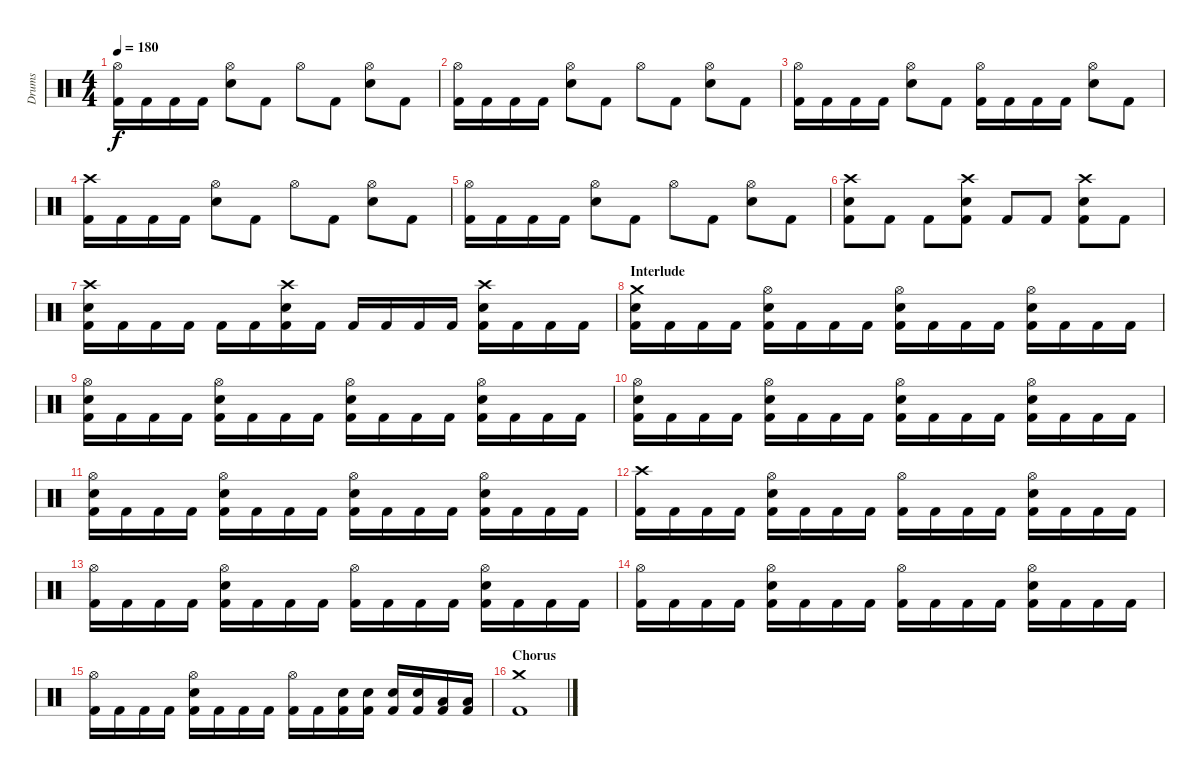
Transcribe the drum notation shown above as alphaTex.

\track ("Drums" "Drums") {instrument percussion}
\staff {score}
\articulation defaults
\ts (4 4)
\tempo 180
\clef neutral
\ks c
("Hi-Hat (open)" "Kick (hit) 2").16{dy f} "Kick (hit) 2".16 "Kick (hit) 2".16 "Kick (hit) 2".16 ("Hi-Hat (open)" "Electric Snare (hit)").8 "Kick (hit) 2".8 "Hi-Hat (open)".8 "Kick (hit) 2".8 ("Hi-Hat (open)" "Electric Snare (hit)").8 "Kick (hit) 2".8 |
("Hi-Hat (open)" "Kick (hit) 2").16 "Kick (hit) 2".16 "Kick (hit) 2".16 "Kick (hit) 2".16 ("Hi-Hat (open)" "Electric Snare (hit)").8 "Kick (hit) 2".8 "Hi-Hat (open)".8 "Kick (hit) 2".8 ("Hi-Hat (open)" "Electric Snare (hit)").8 "Kick (hit) 2".8 |
("Hi-Hat (open)" "Kick (hit) 2").16 "Kick (hit) 2".16 "Kick (hit) 2".16 "Kick (hit) 2".16 ("Hi-Hat (open)" "Electric Snare (hit)").8 "Kick (hit) 2".8 ("Hi-Hat (open)" "Kick (hit) 2").16 "Kick (hit) 2".16 "Kick (hit) 2".16 "Kick (hit) 2".16 ("Hi-Hat (open)" "Electric Snare (hit)").8 "Kick (hit) 2".8 |
("Crash high (hit)" "Kick (hit) 2").16 "Kick (hit) 2".16 "Kick (hit) 2".16 "Kick (hit) 2".16 ("Hi-Hat (open)" "Electric Snare (hit)").8 "Kick (hit) 2".8 "Hi-Hat (open)".8 "Kick (hit) 2".8 ("Hi-Hat (open)" "Electric Snare (hit)").8 "Kick (hit) 2".8 |
("Hi-Hat (open)" "Kick (hit) 2").16 "Kick (hit) 2".16 "Kick (hit) 2".16 "Kick (hit) 2".16 ("Hi-Hat (open)" "Electric Snare (hit)").8 "Kick (hit) 2".8 "Hi-Hat (open)".8 "Kick (hit) 2".8 ("Hi-Hat (open)" "Electric Snare (hit)").8 "Kick (hit) 2".8 |
("Crash high (hit)" "Electric Snare (hit)" "Kick (hit) 2").8 "Kick (hit) 2".8 "Kick (hit) 2".8 ("Crash high (hit)" "Electric Snare (hit)" "Kick (hit) 2").8 "Kick (hit) 2".8 "Kick (hit) 2".8 ("Crash high (hit)" "Electric Snare (hit)" "Kick (hit) 2").8 "Kick (hit) 2".8 |
("Crash high (hit)" "Electric Snare (hit)" "Kick (hit) 2").16 "Kick (hit) 2".16 "Kick (hit) 2".16 "Kick (hit) 2".16 "Kick (hit) 2".16 "Kick (hit) 2".16 ("Crash high (hit)" "Electric Snare (hit)" "Kick (hit) 2").16 "Kick (hit) 2".16 "Kick (hit) 2".16 "Kick (hit) 2".16 "Kick (hit) 2".16 "Kick (hit) 2".16 ("Crash high (hit)" "Electric Snare (hit)" "Kick (hit) 2").16 "Kick (hit) 2".16 "Kick (hit) 2".16 "Kick (hit) 2".16 |
\section ("" "Interlude")
("Crash medium (hit)" "Electric Snare (hit)" "Kick (hit) 2").16 "Kick (hit) 2".16 "Kick (hit) 2".16 "Kick (hit) 2".16 ("Hi-Hat (open)" "Electric Snare (hit)" "Kick (hit) 2").16 "Kick (hit) 2".16 "Kick (hit) 2".16 "Kick (hit) 2".16 ("Hi-Hat (open)" "Electric Snare (hit)" "Kick (hit) 2").16 "Kick (hit) 2".16 "Kick (hit) 2".16 "Kick (hit) 2".16 ("Hi-Hat (open)" "Electric Snare (hit)" "Kick (hit) 2").16 "Kick (hit) 2".16 "Kick (hit) 2".16 "Kick (hit) 2".16 |
("Hi-Hat (open)" "Electric Snare (hit)" "Kick (hit) 2").16 "Kick (hit) 2".16 "Kick (hit) 2".16 "Kick (hit) 2".16 ("Hi-Hat (open)" "Electric Snare (hit)" "Kick (hit) 2").16 "Kick (hit) 2".16 "Kick (hit) 2".16 "Kick (hit) 2".16 ("Hi-Hat (open)" "Electric Snare (hit)" "Kick (hit) 2").16 "Kick (hit) 2".16 "Kick (hit) 2".16 "Kick (hit) 2".16 ("Hi-Hat (open)" "Electric Snare (hit)" "Kick (hit) 2").16 "Kick (hit) 2".16 "Kick (hit) 2".16 "Kick (hit) 2".16 |
("Hi-Hat (open)" "Electric Snare (hit)" "Kick (hit) 2").16 "Kick (hit) 2".16 "Kick (hit) 2".16 "Kick (hit) 2".16 ("Hi-Hat (open)" "Electric Snare (hit)" "Kick (hit) 2").16 "Kick (hit) 2".16 "Kick (hit) 2".16 "Kick (hit) 2".16 ("Hi-Hat (open)" "Electric Snare (hit)" "Kick (hit) 2").16 "Kick (hit) 2".16 "Kick (hit) 2".16 "Kick (hit) 2".16 ("Hi-Hat (open)" "Electric Snare (hit)" "Kick (hit) 2").16 "Kick (hit) 2".16 "Kick (hit) 2".16 "Kick (hit) 2".16 |
("Hi-Hat (open)" "Electric Snare (hit)" "Kick (hit) 2").16 "Kick (hit) 2".16 "Kick (hit) 2".16 "Kick (hit) 2".16 ("Hi-Hat (open)" "Electric Snare (hit)" "Kick (hit) 2").16 "Kick (hit) 2".16 "Kick (hit) 2".16 "Kick (hit) 2".16 ("Hi-Hat (open)" "Electric Snare (hit)" "Kick (hit) 2").16 "Kick (hit) 2".16 "Kick (hit) 2".16 "Kick (hit) 2".16 ("Hi-Hat (open)" "Electric Snare (hit)" "Kick (hit) 2").16 "Kick (hit) 2".16 "Kick (hit) 2".16 "Kick (hit) 2".16 |
("Crash high (hit)" "Kick (hit) 2").16 "Kick (hit) 2".16 "Kick (hit) 2".16 "Kick (hit) 2".16 ("Hi-Hat (open)" "Electric Snare (hit)" "Kick (hit) 2").16 "Kick (hit) 2".16 "Kick (hit) 2".16 "Kick (hit) 2".16 ("Hi-Hat (open)" "Kick (hit) 2").16 "Kick (hit) 2".16 "Kick (hit) 2".16 "Kick (hit) 2".16 ("Hi-Hat (open)" "Electric Snare (hit)" "Kick (hit) 2").16 "Kick (hit) 2".16 "Kick (hit) 2".16 "Kick (hit) 2".16 |
("Hi-Hat (open)" "Kick (hit) 2").16 "Kick (hit) 2".16 "Kick (hit) 2".16 "Kick (hit) 2".16 ("Hi-Hat (open)" "Electric Snare (hit)" "Kick (hit) 2").16 "Kick (hit) 2".16 "Kick (hit) 2".16 "Kick (hit) 2".16 ("Hi-Hat (open)" "Kick (hit) 2").16 "Kick (hit) 2".16 "Kick (hit) 2".16 "Kick (hit) 2".16 ("Hi-Hat (open)" "Electric Snare (hit)" "Kick (hit) 2").16 "Kick (hit) 2".16 "Kick (hit) 2".16 "Kick (hit) 2".16 |
("Hi-Hat (open)" "Kick (hit) 2").16 "Kick (hit) 2".16 "Kick (hit) 2".16 "Kick (hit) 2".16 ("Hi-Hat (open)" "Electric Snare (hit)" "Kick (hit) 2").16 "Kick (hit) 2".16 "Kick (hit) 2".16 "Kick (hit) 2".16 ("Hi-Hat (open)" "Kick (hit) 2").16 "Kick (hit) 2".16 "Kick (hit) 2".16 "Kick (hit) 2".16 ("Hi-Hat (open)" "Electric Snare (hit)" "Kick (hit) 2").16 "Kick (hit) 2".16 "Kick (hit) 2".16 "Kick (hit) 2".16 |
("Hi-Hat (open)" "Kick (hit) 2").16 "Kick (hit) 2".16 "Kick (hit) 2".16 "Kick (hit) 2".16 ("Hi-Hat (open)" "Electric Snare (hit)" "Kick (hit) 2").16 "Kick (hit) 2".16 "Kick (hit) 2".16 "Kick (hit) 2".16 ("Hi-Hat (open)" "Kick (hit) 2").16 "Kick (hit) 2".16 ("Electric Snare (hit)" "Kick (hit) 2").16 ("Electric Snare (hit)" "Kick (hit) 2").16 ("Electric Snare (hit)" "Kick (hit) 2").16 ("Electric Snare (hit)" "Kick (hit) 2").16 ("Low Tom (hit)" "Kick (hit) 2").16 ("Low Tom (hit)" "Kick (hit) 2").16 |
\section ("" "Chorus")
("Crash medium (hit)" "Kick (hit) 2").1
